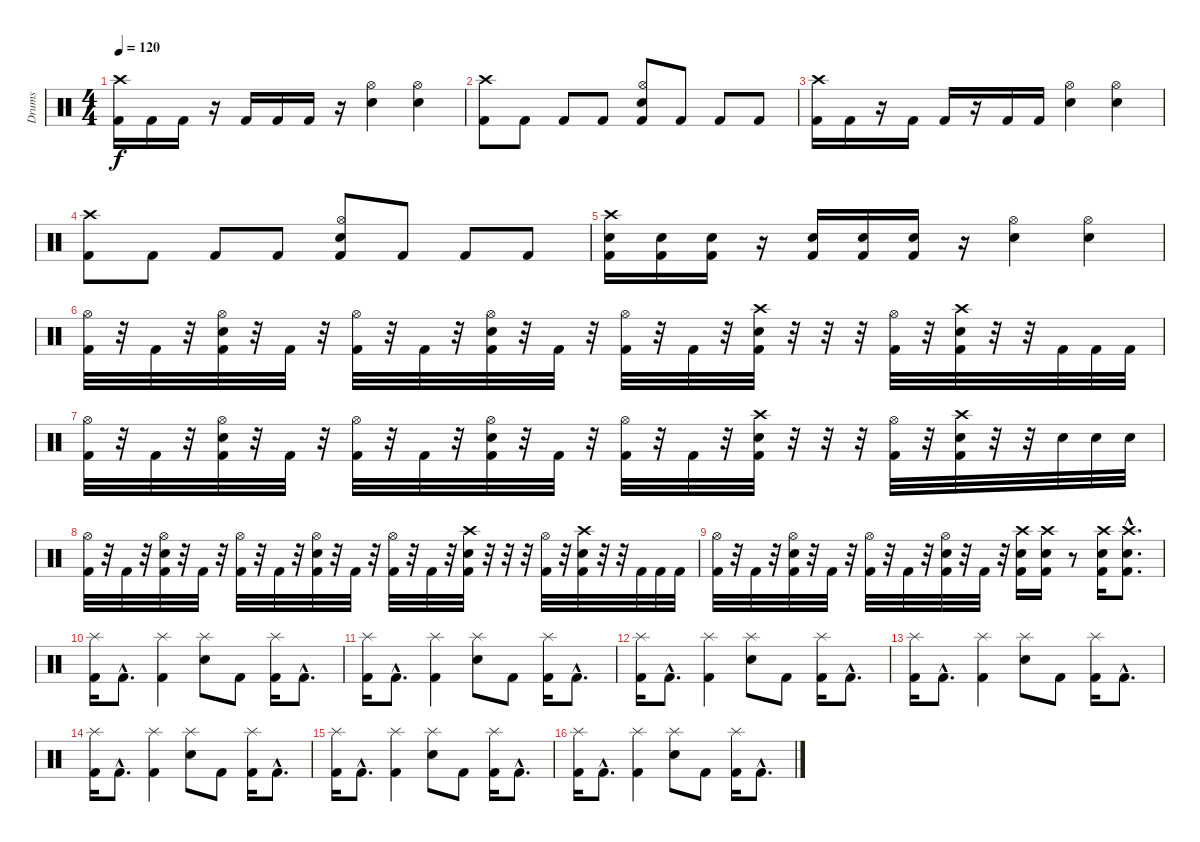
\track ("Drums" "Drums") {instrument percussion}
\staff {score}
\articulation defaults
\ts (4 4)
\tempo 120
\clef neutral
\ks c
("Crash high (hit)" "Kick (hit) 2").16{dy f} "Kick (hit) 2".16 "Kick (hit) 2".16 r.16 "Kick (hit) 2".16 "Kick (hit) 2".16 "Kick (hit) 2".16 r.16 ("Hi-Hat (open)" "Snare (hit) 2").4 ("Hi-Hat (open)" "Snare (hit) 2").4 |
("Crash high (hit)" "Kick (hit) 2").8 "Kick (hit) 2".8 "Kick (hit) 2".8 "Kick (hit) 2".8 ("Hi-Hat (open)" "Snare (hit) 2" "Kick (hit) 2").8 "Kick (hit) 2".8 "Kick (hit) 2".8 "Kick (hit) 2".8 |
("Crash high (hit)" "Kick (hit) 2").16 "Kick (hit) 2".16 r.16 "Kick (hit) 2".16 "Kick (hit) 2".16 r.16 "Kick (hit) 2".16 "Kick (hit) 2".16 ("Hi-Hat (open)" "Snare (hit) 2").4 ("Hi-Hat (open)" "Snare (hit) 2").4 |
("Crash high (hit)" "Kick (hit) 2").8 "Kick (hit) 2".8 "Kick (hit) 2".8 "Kick (hit) 2".8 ("Hi-Hat (open)" "Snare (hit) 2" "Kick (hit) 2").8 "Kick (hit) 2".8 "Kick (hit) 2".8 "Kick (hit) 2".8 |
("Crash high (hit)" "Snare (hit) 2" "Kick (hit) 2").16 ("Snare (hit) 2" "Kick (hit) 2").16 ("Snare (hit) 2" "Kick (hit) 2").16 r.16 ("Snare (hit) 2" "Kick (hit) 2").16 ("Snare (hit) 2" "Kick (hit) 2").16 ("Snare (hit) 2" "Kick (hit) 2").16 r.16 ("Hi-Hat (open)" "Snare (hit) 2").4 ("Hi-Hat (open)" "Snare (hit) 2").4 |
("Hi-Hat (open)" "Kick (hit) 2").32 r.32 "Kick (hit) 2".32 r.32 ("Hi-Hat (open)" "Snare (hit) 2" "Kick (hit) 2").32 r.32 "Kick (hit) 2".32 r.32 ("Hi-Hat (open)" "Kick (hit) 2").32 r.32 "Kick (hit) 2".32 r.32 ("Hi-Hat (open)" "Snare (hit) 2" "Kick (hit) 2").32 r.32 "Kick (hit) 2".32 r.32 ("Hi-Hat (open)" "Kick (hit) 2").32 r.32 "Kick (hit) 2".32 r.32 ("Crash high (hit)" "Snare (hit) 2" "Kick (hit) 2").32 r.32 r.32 r.32 ("Hi-Hat (open)" "Kick (hit) 2").32 r.32 ("Crash high (hit)" "Snare (hit) 2" "Kick (hit) 2").32 r.32 r.32 "Kick (hit) 2".32 "Kick (hit) 2".32 "Kick (hit) 2".32 |
("Hi-Hat (open)" "Kick (hit) 2").32 r.32 "Kick (hit) 2".32 r.32 ("Hi-Hat (open)" "Snare (hit) 2" "Kick (hit) 2").32 r.32 "Kick (hit) 2".32 r.32 ("Hi-Hat (open)" "Kick (hit) 2").32 r.32 "Kick (hit) 2".32 r.32 ("Hi-Hat (open)" "Snare (hit) 2" "Kick (hit) 2").32 r.32 "Kick (hit) 2".32 r.32 ("Hi-Hat (open)" "Kick (hit) 2").32 r.32 "Kick (hit) 2".32 r.32 ("Crash high (hit)" "Snare (hit) 2" "Kick (hit) 2").32 r.32 r.32 r.32 ("Hi-Hat (open)" "Kick (hit) 2").32 r.32 ("Crash high (hit)" "Snare (hit) 2" "Kick (hit) 2").32 r.32 r.32 "Snare (hit) 2".32 "Snare (hit) 2".32 "Snare (hit) 2".32 |
("Hi-Hat (open)" "Kick (hit) 2").32 r.32 "Kick (hit) 2".32 r.32 ("Hi-Hat (open)" "Snare (hit) 2" "Kick (hit) 2").32 r.32 "Kick (hit) 2".32 r.32 ("Hi-Hat (open)" "Kick (hit) 2").32 r.32 "Kick (hit) 2".32 r.32 ("Hi-Hat (open)" "Snare (hit) 2" "Kick (hit) 2").32 r.32 "Kick (hit) 2".32 r.32 ("Hi-Hat (open)" "Kick (hit) 2").32 r.32 "Kick (hit) 2".32 r.32 ("Crash high (hit)" "Snare (hit) 2" "Kick (hit) 2").32 r.32 r.32 r.32 ("Hi-Hat (open)" "Kick (hit) 2").32 r.32 ("Crash high (hit)" "Snare (hit) 2" "Kick (hit) 2").32 r.32 r.32 "Kick (hit) 2".32 "Kick (hit) 2".32 "Kick (hit) 2".32 |
("Hi-Hat (open)" "Kick (hit) 2").32 r.32 "Kick (hit) 2".32 r.32 ("Hi-Hat (open)" "Snare (hit) 2" "Kick (hit) 2").32 r.32 "Kick (hit) 2".32 r.32 ("Hi-Hat (open)" "Kick (hit) 2").32 r.32 "Kick (hit) 2".32 r.32 ("Hi-Hat (open)" "Snare (hit) 2" "Kick (hit) 2").32 r.32 "Kick (hit) 2".32 r.32 ("Crash high (hit)" "Snare (hit) 2" "Kick (hit) 2").16 ("Crash high (hit)" "Snare (hit) 2" "Kick (hit) 2").16 r.8 ("Crash high (hit)" "Snare (hit) 2" "Kick (hit) 2").16 ("Crash high (hit)"{hac} "Snare (hit) 2"{hac} "Kick (hit) 2"{hac}).8{d} |
("Splash (hit)" "Kick (hit) 2").16 "Kick (hit) 2"{hac}.8{d} ("Splash (hit)" "Kick (hit) 2").4 ("Splash (hit)" "Snare (hit) 2").8 "Kick (hit) 2".8 ("Splash (hit)" "Kick (hit) 2").16 "Kick (hit) 2"{hac}.8{d} |
("Splash (hit)" "Kick (hit) 2").16 "Kick (hit) 2"{hac}.8{d} ("Splash (hit)" "Kick (hit) 2").4 ("Splash (hit)" "Snare (hit) 2").8 "Kick (hit) 2".8 ("Splash (hit)" "Kick (hit) 2").16 "Kick (hit) 2"{hac}.8{d} |
("Splash (hit)" "Kick (hit) 2").16 "Kick (hit) 2"{hac}.8{d} ("Splash (hit)" "Kick (hit) 2").4 ("Splash (hit)" "Snare (hit) 2").8 "Kick (hit) 2".8 ("Splash (hit)" "Kick (hit) 2").16 "Kick (hit) 2"{hac}.8{d} |
("Splash (hit)" "Kick (hit) 2").16 "Kick (hit) 2"{hac}.8{d} ("Splash (hit)" "Kick (hit) 2").4 ("Splash (hit)" "Snare (hit) 2").8 "Kick (hit) 2".8 ("Splash (hit)" "Kick (hit) 2").16 "Kick (hit) 2"{hac}.8{d} |
("Splash (hit)" "Kick (hit) 2").16 "Kick (hit) 2"{hac}.8{d} ("Splash (hit)" "Kick (hit) 2").4 ("Splash (hit)" "Snare (hit) 2").8 "Kick (hit) 2".8 ("Splash (hit)" "Kick (hit) 2").16 "Kick (hit) 2"{hac}.8{d} |
("Splash (hit)" "Kick (hit) 2").16 "Kick (hit) 2"{hac}.8{d} ("Splash (hit)" "Kick (hit) 2").4 ("Splash (hit)" "Snare (hit) 2").8 "Kick (hit) 2".8 ("Splash (hit)" "Kick (hit) 2").16 "Kick (hit) 2"{hac}.8{d} |
("Splash (hit)" "Kick (hit) 2").16 "Kick (hit) 2"{hac}.8{d} ("Splash (hit)" "Kick (hit) 2").4 ("Splash (hit)" "Snare (hit) 2").8 "Kick (hit) 2".8 ("Splash (hit)" "Kick (hit) 2").16 "Kick (hit) 2"{hac}.8{d}
